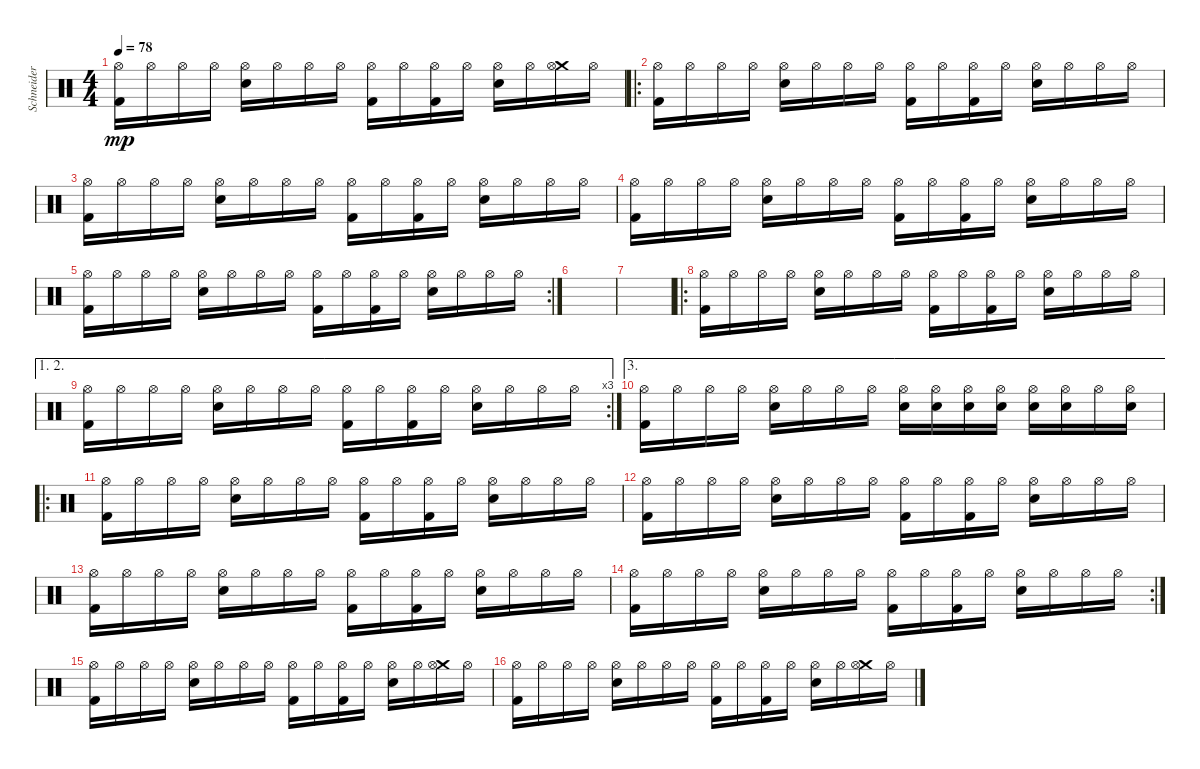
\track ("Schneider" "Schneider") {instrument percussion}
\staff {score}
\articulation defaults
\ts (4 4)
\tempo 78
\clef neutral
\ks c
("Kick (hit) 2" "Hi-Hat (open)").16{dy mp} "Hi-Hat (open)".16 "Hi-Hat (open)".16 "Hi-Hat (open)".16 ("Electric Snare (hit)" "Hi-Hat (open)").16 "Hi-Hat (open)".16 "Hi-Hat (open)".16 "Hi-Hat (open)".16 ("Kick (hit) 2" "Hi-Hat (open)").16 "Hi-Hat (open)".16 ("Kick (hit) 2" "Hi-Hat (open)").16 "Hi-Hat (open)".16 ("Electric Snare (hit)" "Hi-Hat (open)").16 "Hi-Hat (open)".16 ("Crash medium (hit)" "Hi-Hat (open)").16 "Hi-Hat (open)".16 |
\ro
("Kick (hit) 2" "Hi-Hat (open)").16 "Hi-Hat (open)".16 "Hi-Hat (open)".16 "Hi-Hat (open)".16 ("Electric Snare (hit)" "Hi-Hat (open)").16 "Hi-Hat (open)".16 "Hi-Hat (open)".16 "Hi-Hat (open)".16 ("Kick (hit) 2" "Hi-Hat (open)").16 "Hi-Hat (open)".16 ("Kick (hit) 2" "Hi-Hat (open)").16 "Hi-Hat (open)".16 ("Electric Snare (hit)" "Hi-Hat (open)").16 "Hi-Hat (open)".16 "Hi-Hat (open)".16 "Hi-Hat (open)".16 |
("Kick (hit) 2" "Hi-Hat (open)").16 "Hi-Hat (open)".16 "Hi-Hat (open)".16 "Hi-Hat (open)".16 ("Electric Snare (hit)" "Hi-Hat (open)").16 "Hi-Hat (open)".16 "Hi-Hat (open)".16 "Hi-Hat (open)".16 ("Kick (hit) 2" "Hi-Hat (open)").16 "Hi-Hat (open)".16 ("Kick (hit) 2" "Hi-Hat (open)").16 "Hi-Hat (open)".16 ("Electric Snare (hit)" "Hi-Hat (open)").16 "Hi-Hat (open)".16 "Hi-Hat (open)".16 "Hi-Hat (open)".16 |
("Kick (hit) 2" "Hi-Hat (open)").16 "Hi-Hat (open)".16 "Hi-Hat (open)".16 "Hi-Hat (open)".16 ("Electric Snare (hit)" "Hi-Hat (open)").16 "Hi-Hat (open)".16 "Hi-Hat (open)".16 "Hi-Hat (open)".16 ("Kick (hit) 2" "Hi-Hat (open)").16 "Hi-Hat (open)".16 ("Kick (hit) 2" "Hi-Hat (open)").16 "Hi-Hat (open)".16 ("Electric Snare (hit)" "Hi-Hat (open)").16 "Hi-Hat (open)".16 "Hi-Hat (open)".16 "Hi-Hat (open)".16 |
\rc 2
("Kick (hit) 2" "Hi-Hat (open)").16 "Hi-Hat (open)".16 "Hi-Hat (open)".16 "Hi-Hat (open)".16 ("Electric Snare (hit)" "Hi-Hat (open)").16 "Hi-Hat (open)".16 "Hi-Hat (open)".16 "Hi-Hat (open)".16 ("Kick (hit) 2" "Hi-Hat (open)").16 "Hi-Hat (open)".16 ("Kick (hit) 2" "Hi-Hat (open)").16 "Hi-Hat (open)".16 ("Electric Snare (hit)" "Hi-Hat (open)").16 "Hi-Hat (open)".16 "Hi-Hat (open)".16 "Hi-Hat (open)".16 |
|
|
\ro
("Kick (hit) 2" "Hi-Hat (open)").16 "Hi-Hat (open)".16 "Hi-Hat (open)".16 "Hi-Hat (open)".16 ("Electric Snare (hit)" "Hi-Hat (open)").16 "Hi-Hat (open)".16 "Hi-Hat (open)".16 "Hi-Hat (open)".16 ("Kick (hit) 2" "Hi-Hat (open)").16 "Hi-Hat (open)".16 ("Kick (hit) 2" "Hi-Hat (open)").16 "Hi-Hat (open)".16 ("Electric Snare (hit)" "Hi-Hat (open)").16 "Hi-Hat (open)".16 "Hi-Hat (open)".16 "Hi-Hat (open)".16 |
\ae (1 2)
\rc 3
("Kick (hit) 2" "Hi-Hat (open)").16 "Hi-Hat (open)".16 "Hi-Hat (open)".16 "Hi-Hat (open)".16 ("Electric Snare (hit)" "Hi-Hat (open)").16 "Hi-Hat (open)".16 "Hi-Hat (open)".16 "Hi-Hat (open)".16 ("Kick (hit) 2" "Hi-Hat (open)").16 "Hi-Hat (open)".16 ("Kick (hit) 2" "Hi-Hat (open)").16 "Hi-Hat (open)".16 ("Electric Snare (hit)" "Hi-Hat (open)").16 "Hi-Hat (open)".16 "Hi-Hat (open)".16 "Hi-Hat (open)".16 |
\ae 3
("Kick (hit) 2" "Hi-Hat (open)").16 "Hi-Hat (open)".16 "Hi-Hat (open)".16 "Hi-Hat (open)".16 ("Electric Snare (hit)" "Hi-Hat (open)").16 "Hi-Hat (open)".16 "Hi-Hat (open)".16 "Hi-Hat (open)".16 ("Electric Snare (hit)" "Hi-Hat (open)").16 ("Electric Snare (hit)" "Hi-Hat (open)").16 ("Electric Snare (hit)" "Hi-Hat (open)").16 ("Electric Snare (hit)" "Hi-Hat (open)").16 ("Electric Snare (hit)" "Hi-Hat (open)").16 ("Electric Snare (hit)" "Hi-Hat (open)").16 "Hi-Hat (open)".16 ("Electric Snare (hit)" "Hi-Hat (open)").16 |
\ro
("Kick (hit) 2" "Hi-Hat (open)").16 "Hi-Hat (open)".16 "Hi-Hat (open)".16 "Hi-Hat (open)".16 ("Electric Snare (hit)" "Hi-Hat (open)").16 "Hi-Hat (open)".16 "Hi-Hat (open)".16 "Hi-Hat (open)".16 ("Kick (hit) 2" "Hi-Hat (open)").16 "Hi-Hat (open)".16 ("Kick (hit) 2" "Hi-Hat (open)").16 "Hi-Hat (open)".16 ("Electric Snare (hit)" "Hi-Hat (open)").16 "Hi-Hat (open)".16 "Hi-Hat (open)".16 "Hi-Hat (open)".16 |
("Kick (hit) 2" "Hi-Hat (open)").16 "Hi-Hat (open)".16 "Hi-Hat (open)".16 "Hi-Hat (open)".16 ("Electric Snare (hit)" "Hi-Hat (open)").16 "Hi-Hat (open)".16 "Hi-Hat (open)".16 "Hi-Hat (open)".16 ("Kick (hit) 2" "Hi-Hat (open)").16 "Hi-Hat (open)".16 ("Kick (hit) 2" "Hi-Hat (open)").16 "Hi-Hat (open)".16 ("Electric Snare (hit)" "Hi-Hat (open)").16 "Hi-Hat (open)".16 "Hi-Hat (open)".16 "Hi-Hat (open)".16 |
("Kick (hit) 2" "Hi-Hat (open)").16 "Hi-Hat (open)".16 "Hi-Hat (open)".16 "Hi-Hat (open)".16 ("Electric Snare (hit)" "Hi-Hat (open)").16 "Hi-Hat (open)".16 "Hi-Hat (open)".16 "Hi-Hat (open)".16 ("Kick (hit) 2" "Hi-Hat (open)").16 "Hi-Hat (open)".16 ("Kick (hit) 2" "Hi-Hat (open)").16 "Hi-Hat (open)".16 ("Electric Snare (hit)" "Hi-Hat (open)").16 "Hi-Hat (open)".16 "Hi-Hat (open)".16 "Hi-Hat (open)".16 |
\rc 2
("Kick (hit) 2" "Hi-Hat (open)").16 "Hi-Hat (open)".16 "Hi-Hat (open)".16 "Hi-Hat (open)".16 ("Electric Snare (hit)" "Hi-Hat (open)").16 "Hi-Hat (open)".16 "Hi-Hat (open)".16 "Hi-Hat (open)".16 ("Kick (hit) 2" "Hi-Hat (open)").16 "Hi-Hat (open)".16 ("Kick (hit) 2" "Hi-Hat (open)").16 "Hi-Hat (open)".16 ("Electric Snare (hit)" "Hi-Hat (open)").16 "Hi-Hat (open)".16 "Hi-Hat (open)".16 "Hi-Hat (open)".16 |
("Kick (hit) 2" "Hi-Hat (open)").16 "Hi-Hat (open)".16 "Hi-Hat (open)".16 "Hi-Hat (open)".16 ("Electric Snare (hit)" "Hi-Hat (open)").16 "Hi-Hat (open)".16 "Hi-Hat (open)".16 "Hi-Hat (open)".16 ("Kick (hit) 2" "Hi-Hat (open)").16 "Hi-Hat (open)".16 ("Kick (hit) 2" "Hi-Hat (open)").16 "Hi-Hat (open)".16 ("Electric Snare (hit)" "Hi-Hat (open)").16 "Hi-Hat (open)".16 ("Crash medium (hit)" "Hi-Hat (open)").16 "Hi-Hat (open)".16 |
("Kick (hit) 2" "Hi-Hat (open)").16 "Hi-Hat (open)".16 "Hi-Hat (open)".16 "Hi-Hat (open)".16 ("Electric Snare (hit)" "Hi-Hat (open)").16 "Hi-Hat (open)".16 "Hi-Hat (open)".16 "Hi-Hat (open)".16 ("Kick (hit) 2" "Hi-Hat (open)").16 "Hi-Hat (open)".16 ("Kick (hit) 2" "Hi-Hat (open)").16 "Hi-Hat (open)".16 ("Electric Snare (hit)" "Hi-Hat (open)").16 "Hi-Hat (open)".16 ("Crash medium (hit)" "Hi-Hat (open)").16 "Hi-Hat (open)".16
